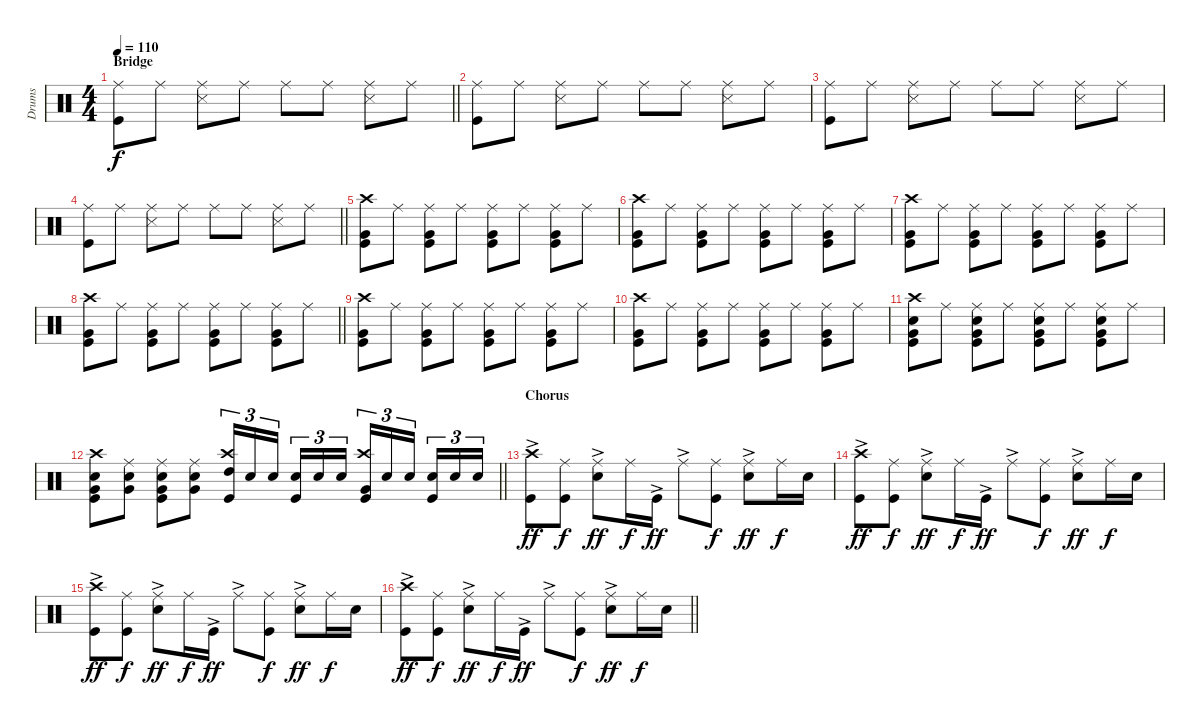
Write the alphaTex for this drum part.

\track ("Drums" "Drums") {instrument percussion}
\staff {score}
\articulation defaults
\ts (4 4)
\section ("" "Bridge")
\tempo 110
\clef neutral
\barLineRight lightlight
\ks c
("Ride (middle)" "Kick (hit)").8{dy f} "Ride (middle)".8 ("Ride (middle)" "Snare (side stick) 3").8 "Ride (middle)".8 "Ride (middle)".8 "Ride (middle)".8 ("Ride (middle)" "Snare (side stick) 3").8 "Ride (middle)".8 |
("Ride (middle)" "Kick (hit)").8 "Ride (middle)".8 ("Ride (middle)" "Snare (side stick) 3").8 "Ride (middle)".8 "Ride (middle)".8 "Ride (middle)".8 ("Ride (middle)" "Snare (side stick) 3").8 "Ride (middle)".8 |
("Ride (middle)" "Kick (hit)").8 "Ride (middle)".8 ("Ride (middle)" "Snare (side stick) 3").8 "Ride (middle)".8 "Ride (middle)".8 "Ride (middle)".8 ("Ride (middle)" "Snare (side stick) 3").8 "Ride (middle)".8 |
\barLineRight lightlight
("Ride (middle)" "Kick (hit)").8 "Ride (middle)".8 ("Ride (middle)" "Snare (side stick) 3").8 "Ride (middle)".8 "Ride (middle)".8 "Ride (middle)".8 ("Ride (middle)" "Snare (side stick) 3").8 "Ride (middle)".8 |
("Crash high (hit)" "Very Low Tom (hit)" "Kick (hit)").8 "Ride (middle)".8 ("Ride (middle)" "Very Low Tom (hit)" "Kick (hit)").8 "Ride (middle)".8 ("Ride (middle)" "Very Low Tom (hit)" "Kick (hit)").8 "Ride (middle)".8 ("Ride (middle)" "Very Low Tom (hit)" "Kick (hit)").8 "Ride (middle)".8 |
("Crash high (hit)" "Very Low Tom (hit)" "Kick (hit)").8 "Ride (middle)".8 ("Ride (middle)" "Very Low Tom (hit)" "Kick (hit)").8 "Ride (middle)".8 ("Ride (middle)" "Very Low Tom (hit)" "Kick (hit)").8 "Ride (middle)".8 ("Ride (middle)" "Very Low Tom (hit)" "Kick (hit)").8 "Ride (middle)".8 |
("Crash high (hit)" "Very Low Tom (hit)" "Kick (hit)").8 "Ride (middle)".8 ("Ride (middle)" "Very Low Tom (hit)" "Kick (hit)").8 "Ride (middle)".8 ("Ride (middle)" "Very Low Tom (hit)" "Kick (hit)").8 "Ride (middle)".8 ("Ride (middle)" "Very Low Tom (hit)" "Kick (hit)").8 "Ride (middle)".8 |
\barLineRight lightlight
("Crash high (hit)" "Very Low Tom (hit)" "Kick (hit)").8 "Ride (middle)".8 ("Ride (middle)" "Very Low Tom (hit)" "Kick (hit)").8 "Ride (middle)".8 ("Ride (middle)" "Very Low Tom (hit)" "Kick (hit)").8 "Ride (middle)".8 ("Ride (middle)" "Very Low Tom (hit)" "Kick (hit)").8 "Ride (middle)".8 |
("Crash high (hit)" "Very Low Tom (hit)" "Kick (hit)").8 "Ride (middle)".8 ("Ride (middle)" "Very Low Tom (hit)" "Kick (hit)").8 "Ride (middle)".8 ("Ride (middle)" "Very Low Tom (hit)" "Kick (hit)").8 "Ride (middle)".8 ("Ride (middle)" "Very Low Tom (hit)" "Kick (hit)").8 "Ride (middle)".8 |
("Crash high (hit)" "Very Low Tom (hit)" "Kick (hit)").8 "Ride (middle)".8 ("Ride (middle)" "Very Low Tom (hit)" "Kick (hit)").8 "Ride (middle)".8 ("Ride (middle)" "Very Low Tom (hit)" "Kick (hit)").8 "Ride (middle)".8 ("Ride (middle)" "Very Low Tom (hit)" "Kick (hit)").8 "Ride (middle)".8 |
("Crash high (hit)" "Snare (hit) 2" "Very Low Tom (hit)" "Kick (hit)").8 "Ride (middle)".8 ("Ride (middle)" "Snare (hit) 2" "Very Low Tom (hit)" "Kick (hit)").8 "Ride (middle)".8 ("Ride (middle)" "Snare (hit) 2" "Very Low Tom (hit)" "Kick (hit)").8 "Ride (middle)".8 ("Ride (middle)" "Snare (hit) 2" "Very Low Tom (hit)" "Kick (hit)").8 "Ride (middle)".8 |
\barLineRight lightlight
("Crash high (hit)" "Snare (hit) 2" "Very Low Tom (hit)" "Kick (hit)").8 ("Ride (middle)" "Snare (hit) 2" "Very Low Tom (hit)").8 ("Ride (middle)" "Snare (hit) 2" "Very Low Tom (hit)" "Kick (hit)").8 ("Ride (middle)" "Snare (hit) 2" "Very Low Tom (hit)").8 ("Crash high (hit)" "High Tom (hit)" "Kick (hit)").16{tu (3 2)} "Snare (hit) 2".16{tu (3 2)} "Snare (hit) 2".16{tu (3 2)} ("Snare (hit) 2" "Kick (hit)").16{tu (3 2)} "Snare (hit) 2".16{tu (3 2)} "Snare (hit) 2".16{tu (3 2)} ("Crash high (hit)" "Very Low Tom (hit)" "Kick (hit)").16{tu (3 2)} "Snare (hit) 2".16{tu (3 2)} "Snare (hit) 2".16{tu (3 2)} ("Snare (hit) 2" "Kick (hit)").16{tu (3 2)} "Snare (hit) 2".16{tu (3 2)} "Snare (hit) 2".16{tu (3 2)} |
\section ("" "Chorus")
("Crash high (hit)"{ac} "Kick (hit)"{ac}).8{dy ff} ("Ride (middle)" "Kick (hit)").8{dy f} ("Ride (middle)"{ac} "Snare (hit) 2").8{dy ff} "Ride (middle)".16{dy f} "Kick (hit)"{ac}.16{dy ff} "Ride (middle)"{ac}.8 ("Ride (middle)" "Kick (hit)").8{dy f} ("Ride (middle)"{ac} "Snare (hit) 2").8{dy ff} "Ride (middle)".16{dy f} "Snare (hit) 2".16 |
("Crash high (hit)"{ac} "Kick (hit)"{ac}).8{dy ff} ("Ride (middle)" "Kick (hit)").8{dy f} ("Ride (middle)"{ac} "Snare (hit) 2").8{dy ff} "Ride (middle)".16{dy f} "Kick (hit)"{ac}.16{dy ff} "Ride (middle)"{ac}.8 ("Ride (middle)" "Kick (hit)").8{dy f} ("Ride (middle)"{ac} "Snare (hit) 2").8{dy ff} "Ride (middle)".16{dy f} "Snare (hit) 2".16 |
("Crash high (hit)"{ac} "Kick (hit)"{ac}).8{dy ff} ("Ride (middle)" "Kick (hit)").8{dy f} ("Ride (middle)"{ac} "Snare (hit) 2").8{dy ff} "Ride (middle)".16{dy f} "Kick (hit)"{ac}.16{dy ff} "Ride (middle)"{ac}.8 ("Ride (middle)" "Kick (hit)").8{dy f} ("Ride (middle)"{ac} "Snare (hit) 2").8{dy ff} "Ride (middle)".16{dy f} "Snare (hit) 2".16 |
\barLineRight lightlight
("Crash high (hit)"{ac} "Kick (hit)"{ac}).8{dy ff} ("Ride (middle)" "Kick (hit)").8{dy f} ("Ride (middle)"{ac} "Snare (hit) 2").8{dy ff} "Ride (middle)".16{dy f} "Kick (hit)"{ac}.16{dy ff} "Ride (middle)"{ac}.8 ("Ride (middle)" "Kick (hit)").8{dy f} ("Ride (middle)"{ac} "Snare (hit) 2").8{dy ff} "Ride (middle)".16{dy f} "Snare (hit) 2".16
